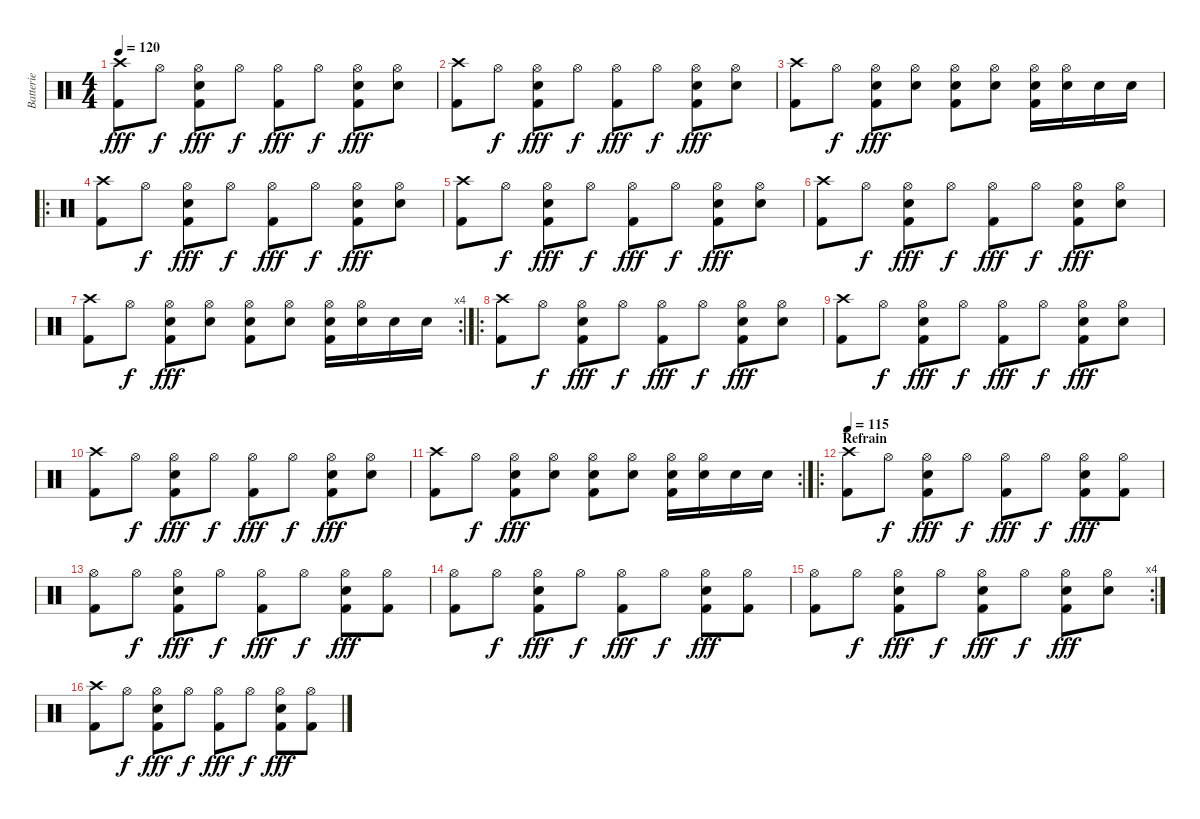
\track ("Batterie" "Batterie") {instrument percussion}
\staff {score}
\articulation defaults
\ts (4 4)
\tempo 120
\clef neutral
\ks c
("Crash high (hit)" "Kick (hit) 2").8{dy fff} "Hi-Hat (open)".8{dy f} ("Hi-Hat (open)" "Kick (hit) 2" "Electric Snare (hit)").8{dy fff} "Hi-Hat (open)".8{dy f} ("Hi-Hat (open)" "Kick (hit) 2").8{dy fff} "Hi-Hat (open)".8{dy f} ("Hi-Hat (open)" "Kick (hit) 2" "Electric Snare (hit)").8{dy fff} ("Hi-Hat (open)" "Electric Snare (hit)").8 |
("Crash high (hit)" "Kick (hit) 2").8 "Hi-Hat (open)".8{dy f} ("Hi-Hat (open)" "Kick (hit) 2" "Electric Snare (hit)").8{dy fff} "Hi-Hat (open)".8{dy f} ("Hi-Hat (open)" "Kick (hit) 2").8{dy fff} "Hi-Hat (open)".8{dy f} ("Hi-Hat (open)" "Kick (hit) 2" "Electric Snare (hit)").8{dy fff} ("Hi-Hat (open)" "Electric Snare (hit)").8 |
("Crash high (hit)" "Kick (hit) 2").8 "Hi-Hat (open)".8{dy f} ("Hi-Hat (open)" "Kick (hit) 2" "Electric Snare (hit)").8{dy fff} ("Hi-Hat (open)" "Electric Snare (hit)").8 ("Hi-Hat (open)" "Kick (hit) 2" "Electric Snare (hit)").8 ("Hi-Hat (open)" "Electric Snare (hit)").8 ("Hi-Hat (open)" "Kick (hit) 2" "Electric Snare (hit)").16 ("Hi-Hat (open)" "Electric Snare (hit)").16 "Electric Snare (hit)".16 "Electric Snare (hit)".16 |
\ro
("Crash high (hit)" "Kick (hit) 2").8 "Hi-Hat (open)".8{dy f} ("Hi-Hat (open)" "Kick (hit) 2" "Electric Snare (hit)").8{dy fff} "Hi-Hat (open)".8{dy f} ("Hi-Hat (open)" "Kick (hit) 2").8{dy fff} "Hi-Hat (open)".8{dy f} ("Hi-Hat (open)" "Kick (hit) 2" "Electric Snare (hit)").8{dy fff} ("Hi-Hat (open)" "Electric Snare (hit)").8 |
("Crash high (hit)" "Kick (hit) 2").8 "Hi-Hat (open)".8{dy f} ("Hi-Hat (open)" "Kick (hit) 2" "Electric Snare (hit)").8{dy fff} "Hi-Hat (open)".8{dy f} ("Hi-Hat (open)" "Kick (hit) 2").8{dy fff} "Hi-Hat (open)".8{dy f} ("Hi-Hat (open)" "Kick (hit) 2" "Electric Snare (hit)").8{dy fff} ("Hi-Hat (open)" "Electric Snare (hit)").8 |
("Crash high (hit)" "Kick (hit) 2").8 "Hi-Hat (open)".8{dy f} ("Hi-Hat (open)" "Kick (hit) 2" "Electric Snare (hit)").8{dy fff} "Hi-Hat (open)".8{dy f} ("Hi-Hat (open)" "Kick (hit) 2").8{dy fff} "Hi-Hat (open)".8{dy f} ("Hi-Hat (open)" "Kick (hit) 2" "Electric Snare (hit)").8{dy fff} ("Hi-Hat (open)" "Electric Snare (hit)").8 |
\rc 4
("Crash high (hit)" "Kick (hit) 2").8 "Hi-Hat (open)".8{dy f} ("Hi-Hat (open)" "Kick (hit) 2" "Electric Snare (hit)").8{dy fff} ("Hi-Hat (open)" "Electric Snare (hit)").8 ("Hi-Hat (open)" "Kick (hit) 2" "Electric Snare (hit)").8 ("Hi-Hat (open)" "Electric Snare (hit)").8 ("Hi-Hat (open)" "Kick (hit) 2" "Electric Snare (hit)").16 ("Hi-Hat (open)" "Electric Snare (hit)").16 "Electric Snare (hit)".16 "Electric Snare (hit)".16 |
\ro
("Crash high (hit)" "Kick (hit) 2").8 "Hi-Hat (open)".8{dy f} ("Hi-Hat (open)" "Kick (hit) 2" "Electric Snare (hit)").8{dy fff} "Hi-Hat (open)".8{dy f} ("Hi-Hat (open)" "Kick (hit) 2").8{dy fff} "Hi-Hat (open)".8{dy f} ("Hi-Hat (open)" "Kick (hit) 2" "Electric Snare (hit)").8{dy fff} ("Hi-Hat (open)" "Electric Snare (hit)").8 |
("Crash high (hit)" "Kick (hit) 2").8 "Hi-Hat (open)".8{dy f} ("Hi-Hat (open)" "Kick (hit) 2" "Electric Snare (hit)").8{dy fff} "Hi-Hat (open)".8{dy f} ("Hi-Hat (open)" "Kick (hit) 2").8{dy fff} "Hi-Hat (open)".8{dy f} ("Hi-Hat (open)" "Kick (hit) 2" "Electric Snare (hit)").8{dy fff} ("Hi-Hat (open)" "Electric Snare (hit)").8 |
("Crash high (hit)" "Kick (hit) 2").8 "Hi-Hat (open)".8{dy f} ("Hi-Hat (open)" "Kick (hit) 2" "Electric Snare (hit)").8{dy fff} "Hi-Hat (open)".8{dy f} ("Hi-Hat (open)" "Kick (hit) 2").8{dy fff} "Hi-Hat (open)".8{dy f} ("Hi-Hat (open)" "Kick (hit) 2" "Electric Snare (hit)").8{dy fff} ("Hi-Hat (open)" "Electric Snare (hit)").8 |
\rc 2
("Crash high (hit)" "Kick (hit) 2").8 "Hi-Hat (open)".8{dy f} ("Hi-Hat (open)" "Kick (hit) 2" "Electric Snare (hit)").8{dy fff} ("Hi-Hat (open)" "Electric Snare (hit)").8 ("Hi-Hat (open)" "Kick (hit) 2" "Electric Snare (hit)").8 ("Hi-Hat (open)" "Electric Snare (hit)").8 ("Hi-Hat (open)" "Kick (hit) 2" "Electric Snare (hit)").16 ("Hi-Hat (open)" "Electric Snare (hit)").16 "Electric Snare (hit)".16 "Electric Snare (hit)".16 |
\ro
\section ("" "Refrain")
\tempo 115
("Crash high (hit)" "Kick (hit) 2").8 "Hi-Hat (open)".8{dy f} ("Hi-Hat (open)" "Kick (hit) 2" "Electric Snare (hit)").8{dy fff} "Hi-Hat (open)".8{dy f} ("Hi-Hat (open)" "Kick (hit) 2").8{dy fff} "Hi-Hat (open)".8{dy f} ("Hi-Hat (open)" "Kick (hit) 2" "Electric Snare (hit)").8{dy fff} ("Hi-Hat (open)" "Kick (hit) 2").8 |
("Hi-Hat (open)" "Kick (hit) 2").8 "Hi-Hat (open)".8{dy f} ("Hi-Hat (open)" "Kick (hit) 2" "Electric Snare (hit)").8{dy fff} "Hi-Hat (open)".8{dy f} ("Hi-Hat (open)" "Kick (hit) 2").8{dy fff} "Hi-Hat (open)".8{dy f} ("Hi-Hat (open)" "Kick (hit) 2" "Electric Snare (hit)").8{dy fff} ("Hi-Hat (open)" "Kick (hit) 2").8 |
("Hi-Hat (open)" "Kick (hit) 2").8 "Hi-Hat (open)".8{dy f} ("Hi-Hat (open)" "Kick (hit) 2" "Electric Snare (hit)").8{dy fff} "Hi-Hat (open)".8{dy f} ("Hi-Hat (open)" "Kick (hit) 2").8{dy fff} "Hi-Hat (open)".8{dy f} ("Hi-Hat (open)" "Kick (hit) 2" "Electric Snare (hit)").8{dy fff} ("Hi-Hat (open)" "Kick (hit) 2").8 |
\rc 4
("Hi-Hat (open)" "Kick (hit) 2").8 "Hi-Hat (open)".8{dy f} ("Hi-Hat (open)" "Kick (hit) 2" "Electric Snare (hit)").8{dy fff} "Hi-Hat (open)".8{dy f} ("Hi-Hat (open)" "Kick (hit) 2" "Electric Snare (hit)").8{dy fff} "Hi-Hat (open)".8{dy f} ("Hi-Hat (open)" "Kick (hit) 2" "Electric Snare (hit)").8{dy fff} ("Hi-Hat (open)" "Electric Snare (hit)").8 |
("Crash high (hit)" "Kick (hit) 2").8 "Hi-Hat (open)".8{dy f} ("Hi-Hat (open)" "Kick (hit) 2" "Electric Snare (hit)").8{dy fff} "Hi-Hat (open)".8{dy f} ("Hi-Hat (open)" "Kick (hit) 2").8{dy fff} "Hi-Hat (open)".8{dy f} ("Hi-Hat (open)" "Kick (hit) 2" "Electric Snare (hit)").8{dy fff} ("Hi-Hat (open)" "Kick (hit) 2").8
